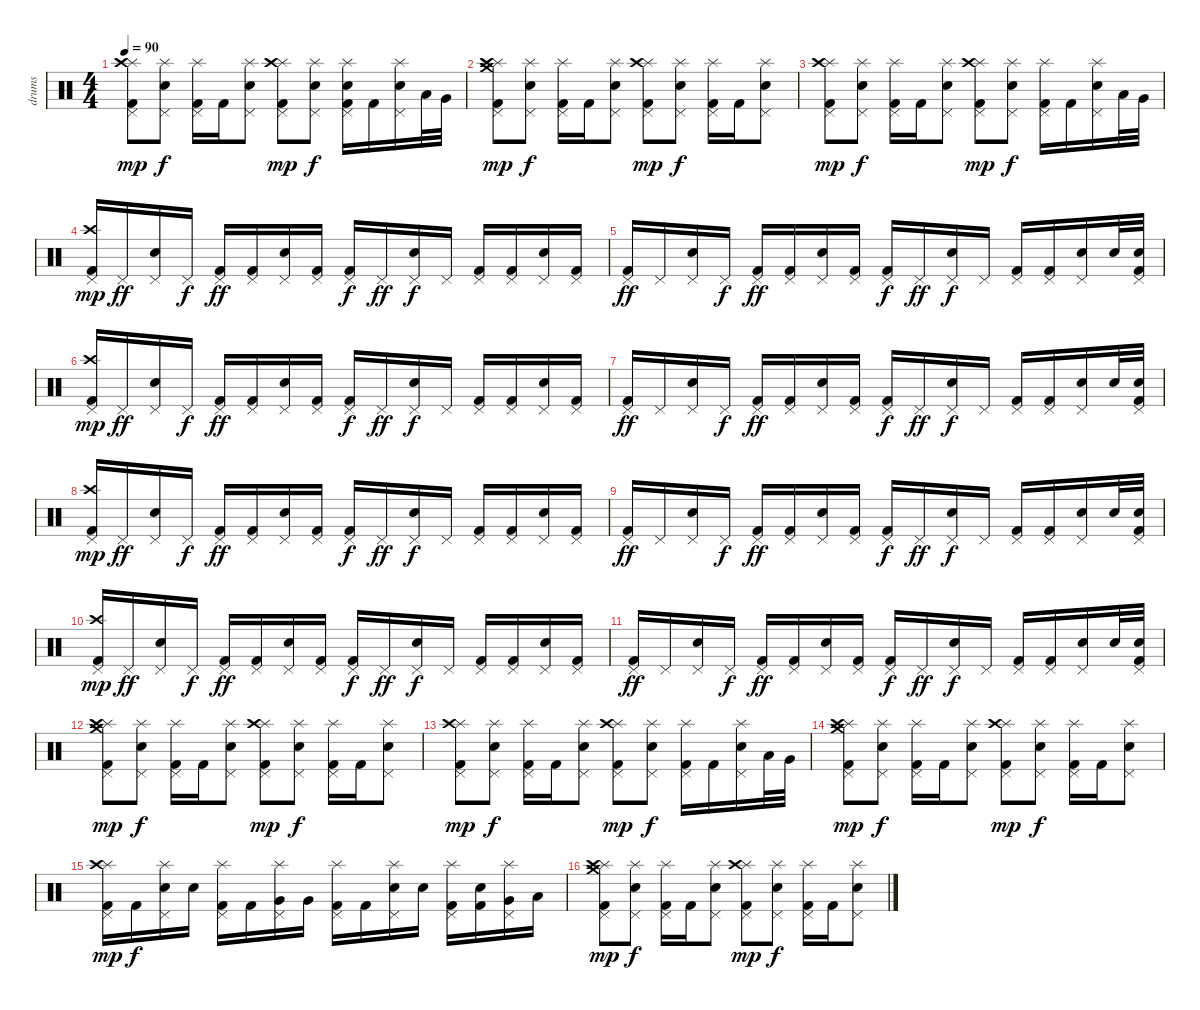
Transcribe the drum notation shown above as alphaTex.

\track ("drums" "drums") {instrument percussion}
\staff {score}
\articulation defaults
\ts (4 4)
\tempo 90
\clef neutral
\ks c
("Splash (hit)" "Pedal Hi-Hat (hit)" "Crash high (hit)" "Kick (hit) 2").8{dy mp} ("Splash (hit)" "Pedal Hi-Hat (hit)" "Electric Snare (hit)").8{dy f} ("Splash (hit)" "Pedal Hi-Hat (hit)" "Kick (hit) 2").16 "Kick (hit) 2".16 ("Splash (hit)" "Pedal Hi-Hat (hit)" "Electric Snare (hit)").8 ("Splash (hit)" "Pedal Hi-Hat (hit)" "Crash high (hit)" "Kick (hit) 2").8{dy mp} ("Splash (hit)" "Pedal Hi-Hat (hit)" "Electric Snare (hit)").8{dy f} ("Splash (hit)" "Pedal Hi-Hat (hit)" "Electric Snare (hit)" "Kick (hit) 2").16 "Kick (hit) 2".16 ("Splash (hit)" "Pedal Hi-Hat (hit)" "Electric Snare (hit)").16 "Low Tom (hit)".32 "Very Low Tom (hit)".32 |
("Splash (hit)" "Pedal Hi-Hat (hit)" "Crash high (hit)" "Crash medium (hit)" "Kick (hit) 2").8{dy mp} ("Splash (hit)" "Pedal Hi-Hat (hit)" "Electric Snare (hit)").8{dy f} ("Splash (hit)" "Pedal Hi-Hat (hit)" "Kick (hit) 2").16 "Kick (hit) 2".16 ("Splash (hit)" "Pedal Hi-Hat (hit)" "Electric Snare (hit)").8 ("Splash (hit)" "Pedal Hi-Hat (hit)" "Crash high (hit)" "Kick (hit) 2").8{dy mp} ("Splash (hit)" "Pedal Hi-Hat (hit)" "Electric Snare (hit)").8{dy f} ("Splash (hit)" "Pedal Hi-Hat (hit)" "Kick (hit) 2").16 "Kick (hit) 2".16 ("Splash (hit)" "Pedal Hi-Hat (hit)" "Electric Snare (hit)").8 |
("Splash (hit)" "Pedal Hi-Hat (hit)" "Crash high (hit)" "Kick (hit) 2").8{dy mp} ("Splash (hit)" "Pedal Hi-Hat (hit)" "Electric Snare (hit)").8{dy f} ("Splash (hit)" "Pedal Hi-Hat (hit)" "Kick (hit) 2").16 "Kick (hit) 2".16 ("Splash (hit)" "Pedal Hi-Hat (hit)" "Electric Snare (hit)").8 ("Splash (hit)" "Pedal Hi-Hat (hit)" "Crash high (hit)" "Kick (hit) 2").8{dy mp} ("Splash (hit)" "Pedal Hi-Hat (hit)" "Electric Snare (hit)").8{dy f} ("Splash (hit)" "Pedal Hi-Hat (hit)" "Kick (hit) 2").16 "Kick (hit) 2".16 ("Splash (hit)" "Pedal Hi-Hat (hit)" "Electric Snare (hit)").16 "Low Tom (hit)".32 "Very Low Tom (hit)".32 |
("Pedal Hi-Hat (hit)" "Crash high (hit)" "Kick (hit) 2").16{dy mp} "Pedal Hi-Hat (hit)".16{dy ff} ("Pedal Hi-Hat (hit)" "Electric Snare (hit)").16 "Pedal Hi-Hat (hit)".16{dy f} ("Pedal Hi-Hat (hit)" "Kick (hit) 2").16{dy ff} ("Pedal Hi-Hat (hit)" "Kick (hit) 2").16 ("Pedal Hi-Hat (hit)" "Electric Snare (hit)").16 ("Pedal Hi-Hat (hit)" "Kick (hit) 2").16 ("Pedal Hi-Hat (hit)" "Kick (hit) 2").16{dy f} "Pedal Hi-Hat (hit)".16{dy ff} ("Pedal Hi-Hat (hit)" "Electric Snare (hit)").16{dy f} "Pedal Hi-Hat (hit)".16 ("Pedal Hi-Hat (hit)" "Kick (hit) 2").16 ("Pedal Hi-Hat (hit)" "Kick (hit) 2").16 ("Pedal Hi-Hat (hit)" "Electric Snare (hit)").16 ("Pedal Hi-Hat (hit)" "Kick (hit) 2").16 |
("Pedal Hi-Hat (hit)" "Kick (hit) 2").16{dy ff} "Pedal Hi-Hat (hit)".16 ("Pedal Hi-Hat (hit)" "Electric Snare (hit)").16 "Pedal Hi-Hat (hit)".16{dy f} ("Pedal Hi-Hat (hit)" "Kick (hit) 2").16{dy ff} ("Pedal Hi-Hat (hit)" "Kick (hit) 2").16 ("Pedal Hi-Hat (hit)" "Electric Snare (hit)").16 ("Pedal Hi-Hat (hit)" "Kick (hit) 2").16 ("Pedal Hi-Hat (hit)" "Kick (hit) 2").16{dy f} "Pedal Hi-Hat (hit)".16{dy ff} ("Pedal Hi-Hat (hit)" "Electric Snare (hit)").16{dy f} "Pedal Hi-Hat (hit)".16 ("Pedal Hi-Hat (hit)" "Kick (hit) 2").16 ("Pedal Hi-Hat (hit)" "Kick (hit) 2").16 ("Pedal Hi-Hat (hit)" "Electric Snare (hit)").16 "Electric Snare (hit)".32 ("Pedal Hi-Hat (hit)" "Electric Snare (hit)" "Kick (hit) 2").32 |
("Pedal Hi-Hat (hit)" "Crash high (hit)" "Kick (hit) 2").16{dy mp} "Pedal Hi-Hat (hit)".16{dy ff} ("Pedal Hi-Hat (hit)" "Electric Snare (hit)").16 "Pedal Hi-Hat (hit)".16{dy f} ("Pedal Hi-Hat (hit)" "Kick (hit) 2").16{dy ff} ("Pedal Hi-Hat (hit)" "Kick (hit) 2").16 ("Pedal Hi-Hat (hit)" "Electric Snare (hit)").16 ("Pedal Hi-Hat (hit)" "Kick (hit) 2").16 ("Pedal Hi-Hat (hit)" "Kick (hit) 2").16{dy f} "Pedal Hi-Hat (hit)".16{dy ff} ("Pedal Hi-Hat (hit)" "Electric Snare (hit)").16{dy f} "Pedal Hi-Hat (hit)".16 ("Pedal Hi-Hat (hit)" "Kick (hit) 2").16 ("Pedal Hi-Hat (hit)" "Kick (hit) 2").16 ("Pedal Hi-Hat (hit)" "Electric Snare (hit)").16 ("Pedal Hi-Hat (hit)" "Kick (hit) 2").16 |
("Pedal Hi-Hat (hit)" "Kick (hit) 2").16{dy ff} "Pedal Hi-Hat (hit)".16 ("Pedal Hi-Hat (hit)" "Electric Snare (hit)").16 "Pedal Hi-Hat (hit)".16{dy f} ("Pedal Hi-Hat (hit)" "Kick (hit) 2").16{dy ff} ("Pedal Hi-Hat (hit)" "Kick (hit) 2").16 ("Pedal Hi-Hat (hit)" "Electric Snare (hit)").16 ("Pedal Hi-Hat (hit)" "Kick (hit) 2").16 ("Pedal Hi-Hat (hit)" "Kick (hit) 2").16{dy f} "Pedal Hi-Hat (hit)".16{dy ff} ("Pedal Hi-Hat (hit)" "Electric Snare (hit)").16{dy f} "Pedal Hi-Hat (hit)".16 ("Pedal Hi-Hat (hit)" "Kick (hit) 2").16 ("Pedal Hi-Hat (hit)" "Kick (hit) 2").16 ("Pedal Hi-Hat (hit)" "Electric Snare (hit)").16 "Electric Snare (hit)".32 ("Pedal Hi-Hat (hit)" "Electric Snare (hit)" "Kick (hit) 2").32 |
("Pedal Hi-Hat (hit)" "Crash high (hit)" "Kick (hit) 2").16{dy mp} "Pedal Hi-Hat (hit)".16{dy ff} ("Pedal Hi-Hat (hit)" "Electric Snare (hit)").16 "Pedal Hi-Hat (hit)".16{dy f} ("Pedal Hi-Hat (hit)" "Kick (hit) 2").16{dy ff} ("Pedal Hi-Hat (hit)" "Kick (hit) 2").16 ("Pedal Hi-Hat (hit)" "Electric Snare (hit)").16 ("Pedal Hi-Hat (hit)" "Kick (hit) 2").16 ("Pedal Hi-Hat (hit)" "Kick (hit) 2").16{dy f} "Pedal Hi-Hat (hit)".16{dy ff} ("Pedal Hi-Hat (hit)" "Electric Snare (hit)").16{dy f} "Pedal Hi-Hat (hit)".16 ("Pedal Hi-Hat (hit)" "Kick (hit) 2").16 ("Pedal Hi-Hat (hit)" "Kick (hit) 2").16 ("Pedal Hi-Hat (hit)" "Electric Snare (hit)").16 ("Pedal Hi-Hat (hit)" "Kick (hit) 2").16 |
("Pedal Hi-Hat (hit)" "Kick (hit) 2").16{dy ff} "Pedal Hi-Hat (hit)".16 ("Pedal Hi-Hat (hit)" "Electric Snare (hit)").16 "Pedal Hi-Hat (hit)".16{dy f} ("Pedal Hi-Hat (hit)" "Kick (hit) 2").16{dy ff} ("Pedal Hi-Hat (hit)" "Kick (hit) 2").16 ("Pedal Hi-Hat (hit)" "Electric Snare (hit)").16 ("Pedal Hi-Hat (hit)" "Kick (hit) 2").16 ("Pedal Hi-Hat (hit)" "Kick (hit) 2").16{dy f} "Pedal Hi-Hat (hit)".16{dy ff} ("Pedal Hi-Hat (hit)" "Electric Snare (hit)").16{dy f} "Pedal Hi-Hat (hit)".16 ("Pedal Hi-Hat (hit)" "Kick (hit) 2").16 ("Pedal Hi-Hat (hit)" "Kick (hit) 2").16 ("Pedal Hi-Hat (hit)" "Electric Snare (hit)").16 "Electric Snare (hit)".32 ("Pedal Hi-Hat (hit)" "Electric Snare (hit)" "Kick (hit) 2").32 |
("Pedal Hi-Hat (hit)" "Crash high (hit)" "Kick (hit) 2").16{dy mp} "Pedal Hi-Hat (hit)".16{dy ff} ("Pedal Hi-Hat (hit)" "Electric Snare (hit)").16 "Pedal Hi-Hat (hit)".16{dy f} ("Pedal Hi-Hat (hit)" "Kick (hit) 2").16{dy ff} ("Pedal Hi-Hat (hit)" "Kick (hit) 2").16 ("Pedal Hi-Hat (hit)" "Electric Snare (hit)").16 ("Pedal Hi-Hat (hit)" "Kick (hit) 2").16 ("Pedal Hi-Hat (hit)" "Kick (hit) 2").16{dy f} "Pedal Hi-Hat (hit)".16{dy ff} ("Pedal Hi-Hat (hit)" "Electric Snare (hit)").16{dy f} "Pedal Hi-Hat (hit)".16 ("Pedal Hi-Hat (hit)" "Kick (hit) 2").16 ("Pedal Hi-Hat (hit)" "Kick (hit) 2").16 ("Pedal Hi-Hat (hit)" "Electric Snare (hit)").16 ("Pedal Hi-Hat (hit)" "Kick (hit) 2").16 |
("Pedal Hi-Hat (hit)" "Kick (hit) 2").16{dy ff} "Pedal Hi-Hat (hit)".16 ("Pedal Hi-Hat (hit)" "Electric Snare (hit)").16 "Pedal Hi-Hat (hit)".16{dy f} ("Pedal Hi-Hat (hit)" "Kick (hit) 2").16{dy ff} ("Pedal Hi-Hat (hit)" "Kick (hit) 2").16 ("Pedal Hi-Hat (hit)" "Electric Snare (hit)").16 ("Pedal Hi-Hat (hit)" "Kick (hit) 2").16 ("Pedal Hi-Hat (hit)" "Kick (hit) 2").16{dy f} "Pedal Hi-Hat (hit)".16{dy ff} ("Pedal Hi-Hat (hit)" "Electric Snare (hit)").16{dy f} "Pedal Hi-Hat (hit)".16 ("Pedal Hi-Hat (hit)" "Kick (hit) 2").16 ("Pedal Hi-Hat (hit)" "Kick (hit) 2").16 ("Pedal Hi-Hat (hit)" "Electric Snare (hit)").16 "Electric Snare (hit)".32 ("Pedal Hi-Hat (hit)" "Electric Snare (hit)" "Kick (hit) 2").32 |
("Splash (hit)" "Pedal Hi-Hat (hit)" "Crash high (hit)" "Crash medium (hit)" "Kick (hit) 2").8{dy mp} ("Splash (hit)" "Pedal Hi-Hat (hit)" "Electric Snare (hit)").8{dy f} ("Splash (hit)" "Pedal Hi-Hat (hit)" "Kick (hit) 2").16 "Kick (hit) 2".16 ("Splash (hit)" "Pedal Hi-Hat (hit)" "Electric Snare (hit)").8 ("Splash (hit)" "Pedal Hi-Hat (hit)" "Crash high (hit)" "Kick (hit) 2").8{dy mp} ("Splash (hit)" "Pedal Hi-Hat (hit)" "Electric Snare (hit)").8{dy f} ("Splash (hit)" "Pedal Hi-Hat (hit)" "Kick (hit) 2").16 "Kick (hit) 2".16 ("Splash (hit)" "Pedal Hi-Hat (hit)" "Electric Snare (hit)").8 |
("Splash (hit)" "Pedal Hi-Hat (hit)" "Crash high (hit)" "Kick (hit) 2").8{dy mp} ("Splash (hit)" "Pedal Hi-Hat (hit)" "Electric Snare (hit)").8{dy f} ("Splash (hit)" "Pedal Hi-Hat (hit)" "Kick (hit) 2").16 "Kick (hit) 2".16 ("Splash (hit)" "Pedal Hi-Hat (hit)" "Electric Snare (hit)").8 ("Splash (hit)" "Pedal Hi-Hat (hit)" "Crash high (hit)" "Kick (hit) 2").8{dy mp} ("Splash (hit)" "Pedal Hi-Hat (hit)" "Electric Snare (hit)").8{dy f} ("Splash (hit)" "Pedal Hi-Hat (hit)" "Kick (hit) 2").16 "Kick (hit) 2".16 ("Splash (hit)" "Pedal Hi-Hat (hit)" "Electric Snare (hit)").16 "Low Tom (hit)".32 "Very Low Tom (hit)".32 |
("Splash (hit)" "Pedal Hi-Hat (hit)" "Crash high (hit)" "Crash medium (hit)" "Kick (hit) 2").8{dy mp} ("Splash (hit)" "Pedal Hi-Hat (hit)" "Electric Snare (hit)").8{dy f} ("Splash (hit)" "Pedal Hi-Hat (hit)" "Kick (hit) 2").16 "Kick (hit) 2".16 ("Splash (hit)" "Pedal Hi-Hat (hit)" "Electric Snare (hit)").8 ("Splash (hit)" "Pedal Hi-Hat (hit)" "Crash high (hit)" "Kick (hit) 2").8{dy mp} ("Splash (hit)" "Pedal Hi-Hat (hit)" "Electric Snare (hit)").8{dy f} ("Splash (hit)" "Pedal Hi-Hat (hit)" "Kick (hit) 2").16 "Kick (hit) 2".16 ("Splash (hit)" "Pedal Hi-Hat (hit)" "Electric Snare (hit)").8 |
("Splash (hit)" "Pedal Hi-Hat (hit)" "Crash high (hit)" "Kick (hit) 2").16{dy mp} "Kick (hit) 2".16{dy f} ("Splash (hit)" "Pedal Hi-Hat (hit)" "Electric Snare (hit)").16 "Electric Snare (hit)".16 ("Splash (hit)" "Pedal Hi-Hat (hit)" "Kick (hit) 2").16 "Kick (hit) 2".16 ("Splash (hit)" "Pedal Hi-Hat (hit)" "Very Low Tom (hit)").16 "Very Low Tom (hit)".16 ("Splash (hit)" "Pedal Hi-Hat (hit)" "Kick (hit) 2").16 "Kick (hit) 2".16 ("Splash (hit)" "Pedal Hi-Hat (hit)" "Electric Snare (hit)").16 "Electric Snare (hit)".16 ("Splash (hit)" "Pedal Hi-Hat (hit)" "Kick (hit) 2").16 ("Electric Snare (hit)" "Kick (hit) 2").16 ("Splash (hit)" "Pedal Hi-Hat (hit)" "Very Low Tom (hit)").16 "Low Floor Tom (hit)".16 |
("Splash (hit)" "Pedal Hi-Hat (hit)" "Crash high (hit)" "Crash medium (hit)" "Kick (hit) 2").8{dy mp} ("Splash (hit)" "Pedal Hi-Hat (hit)" "Electric Snare (hit)").8{dy f} ("Splash (hit)" "Pedal Hi-Hat (hit)" "Kick (hit) 2").16 "Kick (hit) 2".16 ("Splash (hit)" "Pedal Hi-Hat (hit)" "Electric Snare (hit)").8 ("Splash (hit)" "Pedal Hi-Hat (hit)" "Crash high (hit)" "Kick (hit) 2").8{dy mp} ("Splash (hit)" "Pedal Hi-Hat (hit)" "Electric Snare (hit)").8{dy f} ("Splash (hit)" "Pedal Hi-Hat (hit)" "Kick (hit) 2").16 "Kick (hit) 2".16 ("Splash (hit)" "Pedal Hi-Hat (hit)" "Electric Snare (hit)").8
